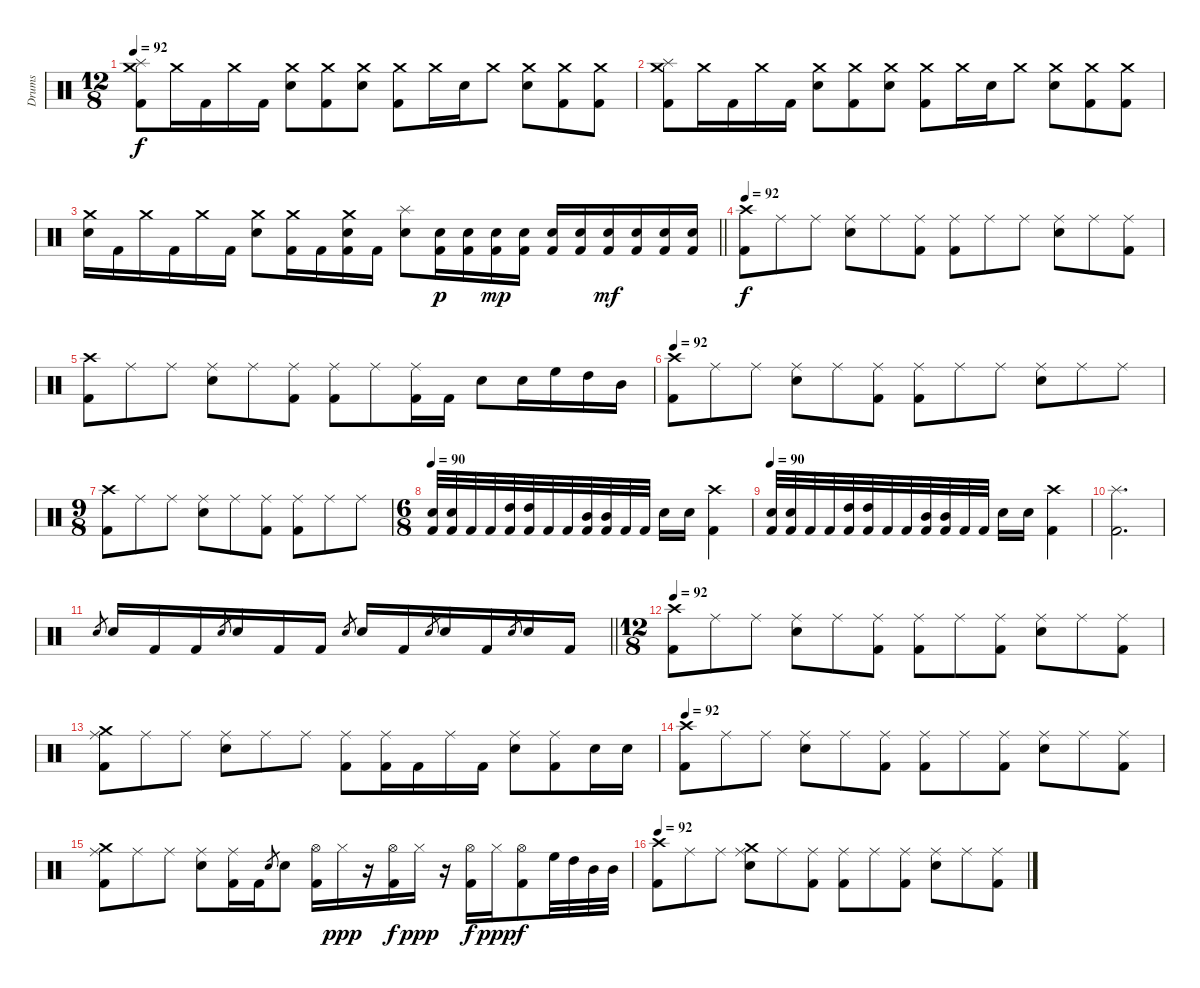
\track ("Drums" "Drums") {instrument percussion}
\staff {score}
\articulation defaults
\ts (12 8)
\tempo 92
\clef neutral
\ks c
("Crash medium (hit)" "Splash (hit)" "Kick (hit) 2").8{dy f} "Crash medium (hit)".16 "Kick (hit) 2".16 "Crash medium (hit)".16 "Kick (hit) 2".16 ("Crash medium (hit)" "Electric Snare (hit)").8 ("Crash medium (hit)" "Kick (hit) 2").8 ("Crash medium (hit)" "Electric Snare (hit)").8 ("Crash medium (hit)" "Kick (hit) 2").8 "Crash medium (hit)".16 "Electric Snare (hit)".16 "Crash medium (hit)".8 ("Crash medium (hit)" "Electric Snare (hit)").8 ("Crash medium (hit)" "Kick (hit) 2").8 ("Crash medium (hit)" "Kick (hit) 2").8 |
("Crash medium (hit)" "Splash (hit)" "Kick (hit) 2").8 "Crash medium (hit)".16 "Kick (hit) 2".16 "Crash medium (hit)".16 "Kick (hit) 2".16 ("Crash medium (hit)" "Electric Snare (hit)").8 ("Crash medium (hit)" "Kick (hit) 2").8 ("Crash medium (hit)" "Electric Snare (hit)").8 ("Crash medium (hit)" "Kick (hit) 2").8 "Crash medium (hit)".16 "Electric Snare (hit)".16 "Crash medium (hit)".8 ("Crash medium (hit)" "Electric Snare (hit)").8 ("Crash medium (hit)" "Kick (hit) 2").8 ("Crash medium (hit)" "Kick (hit) 2").8 |
\barLineRight lightlight
("Crash medium (hit)" "Electric Snare (hit)").16 "Kick (hit) 2".16 "Crash medium (hit)".16 "Kick (hit) 2".16 "Crash medium (hit)".16 "Kick (hit) 2".16 ("Crash medium (hit)" "Electric Snare (hit)").8 ("Crash medium (hit)" "Kick (hit) 2").16 "Kick (hit) 2".16 ("Crash medium (hit)" "Electric Snare (hit)" "Kick (hit) 2").16 "Kick (hit) 2".16 ("Splash (hit)" "Electric Snare (hit)").8 ("Electric Snare (hit)" "Kick (hit) 2").16{dy p} ("Electric Snare (hit)" "Kick (hit) 2").16 ("Electric Snare (hit)" "Kick (hit) 2").16{dy mp} ("Electric Snare (hit)" "Kick (hit) 2").16 ("Electric Snare (hit)" "Kick (hit) 2").16 ("Electric Snare (hit)" "Kick (hit) 2").16 ("Electric Snare (hit)" "Kick (hit) 2").16{dy mf} ("Electric Snare (hit)" "Kick (hit) 2").16 ("Electric Snare (hit)" "Kick (hit) 2").16 ("Electric Snare (hit)" "Kick (hit) 2").16 |
\tempo 92
("Crash high (hit)" "Kick (hit) 2").8{dy f} "Ride (middle)".8 "Ride (middle)".8 ("Ride (middle)" "Electric Snare (hit)").8 "Ride (middle)".8 ("Ride (middle)" "Kick (hit) 2").8 ("Ride (middle)" "Kick (hit) 2").8 "Ride (middle)".8 "Ride (middle)".8 ("Ride (middle)" "Electric Snare (hit)").8 "Ride (middle)".8 ("Ride (middle)" "Kick (hit) 2").8 |
("Crash high (hit)" "Kick (hit) 2").8 "Ride (middle)".8 "Ride (middle)".8 ("Ride (middle)" "Electric Snare (hit)").8 "Ride (middle)".8 ("Ride (middle)" "Kick (hit) 2").8 ("Ride (middle)" "Kick (hit) 2").8 "Ride (middle)".8 ("Ride (middle)" "Kick (hit) 2").16 "Kick (hit) 2".16 "Electric Snare (hit)".8 "Electric Snare (hit)".16 "High Floor Tom (hit)".16 "High Tom (hit)".16 "Mid Tom (hit)".16 |
\tempo 92
("Crash high (hit)" "Kick (hit) 2").8 "Ride (middle)".8 "Ride (middle)".8 ("Ride (middle)" "Electric Snare (hit)").8 "Ride (middle)".8 ("Ride (middle)" "Kick (hit) 2").8 ("Ride (middle)" "Kick (hit) 2").8 "Ride (middle)".8 "Ride (middle)".8 ("Ride (middle)" "Electric Snare (hit)").8 "Ride (middle)".8 "Ride (middle)".8 |
\ts (9 8)
("Crash high (hit)" "Kick (hit) 2").8 "Ride (middle)".8 "Ride (middle)".8 ("Ride (middle)" "Electric Snare (hit)").8 "Ride (middle)".8 ("Ride (middle)" "Kick (hit) 2").8 ("Ride (middle)" "Kick (hit) 2").8 "Ride (middle)".8 "Ride (middle)".8 |
\ts (6 8)
\tempo 90
("Electric Snare (hit)" "Kick (hit) 2").32 ("Electric Snare (hit)" "Kick (hit) 2").32 "Kick (hit) 2".32 "Kick (hit) 2".32 ("High Tom (hit)" "Kick (hit) 2").32 ("High Tom (hit)" "Kick (hit) 2").32 "Kick (hit) 2".32 "Kick (hit) 2".32 ("Mid Tom (hit)" "Kick (hit) 2").32 ("Mid Tom (hit)" "Kick (hit) 2").32 "Kick (hit) 2".32 "Kick (hit) 2".32 "Electric Snare (hit)".16 "Electric Snare (hit)".16 ("Crash high (hit)" "Kick (hit) 2").4 |
\tempo 90
("Electric Snare (hit)" "Kick (hit) 2").32 ("Electric Snare (hit)" "Kick (hit) 2").32 "Kick (hit) 2".32 "Kick (hit) 2".32 ("High Tom (hit)" "Kick (hit) 2").32 ("High Tom (hit)" "Kick (hit) 2").32 "Kick (hit) 2".32 "Kick (hit) 2".32 ("Mid Tom (hit)" "Kick (hit) 2").32 ("Mid Tom (hit)" "Kick (hit) 2").32 "Kick (hit) 2".32 "Kick (hit) 2".32 "Electric Snare (hit)".16 "Electric Snare (hit)".16 ("Crash high (hit)" "Kick (hit) 2").4 |
("Splash (hit)" "Kick (hit) 2").2{d} |
\barLineRight lightlight "Electric Snare (hit)".8{gr} "Electric Snare (hit)".16 "Kick (hit) 2".16 "Kick (hit) 2".16 "Electric Snare (hit)".8{gr} "Electric Snare (hit)".16 "Kick (hit) 2".16 "Kick (hit) 2".16 "Electric Snare (hit)".8{gr} "Electric Snare (hit)".16 "Kick (hit) 2".16 "Electric Snare (hit)".8{gr} "Electric Snare (hit)".16 "Kick (hit) 2".16 "Electric Snare (hit)".8{gr} "Electric Snare (hit)".16 "Kick (hit) 2".16
|
\ts (12 8)
\tempo 92
("Crash high (hit)" "Kick (hit) 2").8 "Ride (middle)".8 "Ride (middle)".8 ("Ride (middle)" "Electric Snare (hit)").8 "Ride (middle)".8 ("Ride (middle)" "Kick (hit) 2").8 ("Ride (middle)" "Kick (hit) 2").8 "Ride (middle)".8 ("Ride (middle)" "Kick (hit) 2").8 ("Ride (middle)" "Electric Snare (hit)").8 "Ride (middle)".8 ("Ride (middle)" "Kick (hit) 2").8 |
("Crash medium (hit)" "Ride (middle)" "Kick (hit) 2").8 "Ride (middle)".8 "Ride (middle)".8 ("Ride (middle)" "Electric Snare (hit)").8 "Ride (middle)".8 "Ride (middle)".8 ("Ride (middle)" "Kick (hit) 2").8 ("Ride (middle)" "Kick (hit) 2").16 "Kick (hit) 2".16 "Ride (middle)".16 "Kick (hit) 2".16 ("Ride (middle)" "Electric Snare (hit)").8 ("Ride (middle)" "Kick (hit) 2").8 "Electric Snare (hit)".16 "Electric Snare (hit)".16 |
\tempo 92
("Crash high (hit)" "Kick (hit) 2").8 "Ride (middle)".8 "Ride (middle)".8 ("Ride (middle)" "Electric Snare (hit)").8 "Ride (middle)".8 ("Ride (middle)" "Kick (hit) 2").8 ("Ride (middle)" "Kick (hit) 2").8 "Ride (middle)".8 ("Ride (middle)" "Kick (hit) 2").8 ("Ride (middle)" "Electric Snare (hit)").8 "Ride (middle)".8 ("Ride (middle)" "Kick (hit) 2").8 |
("Crash medium (hit)" "Ride (middle)" "Kick (hit) 2").8 "Ride (middle)".8 "Ride (middle)".8 ("Ride (middle)" "Electric Snare (hit)").8 ("Ride (middle)" "Kick (hit) 2").16 "Kick (hit) 2".16 "Electric Snare (hit)".8{gr} "Electric Snare (hit)".8 ("Hi-Hat (open)" "Kick (hit) 2").16 "Hi-Hat (closed)".16{dy ppp} r.16 ("Hi-Hat (open)" "Kick (hit) 2").16{dy f} "Hi-Hat (closed)".16{dy ppp} r.16 ("Hi-Hat (open)" "Kick (hit) 2").16{dy f} "Hi-Hat (closed)".16{dy ppp} ("Hi-Hat (open)" "Kick (hit) 2").8{dy f} "High Floor Tom (hit)".32 "High Tom (hit)".32 "Mid Tom (hit)".32 "Mid Tom (hit)".32 |
\tempo 92
("Crash high (hit)" "Kick (hit) 2").8 "Ride (middle)".8 "Ride (middle)".8 ("Crash medium (hit)" "Ride (middle)" "Electric Snare (hit)").8 "Ride (middle)".8 ("Ride (middle)" "Kick (hit) 2").8 ("Ride (middle)" "Kick (hit) 2").8 "Ride (middle)".8 ("Ride (middle)" "Kick (hit) 2").8 ("Ride (middle)" "Electric Snare (hit)").8 "Ride (middle)".8 ("Ride (middle)" "Kick (hit) 2").8
